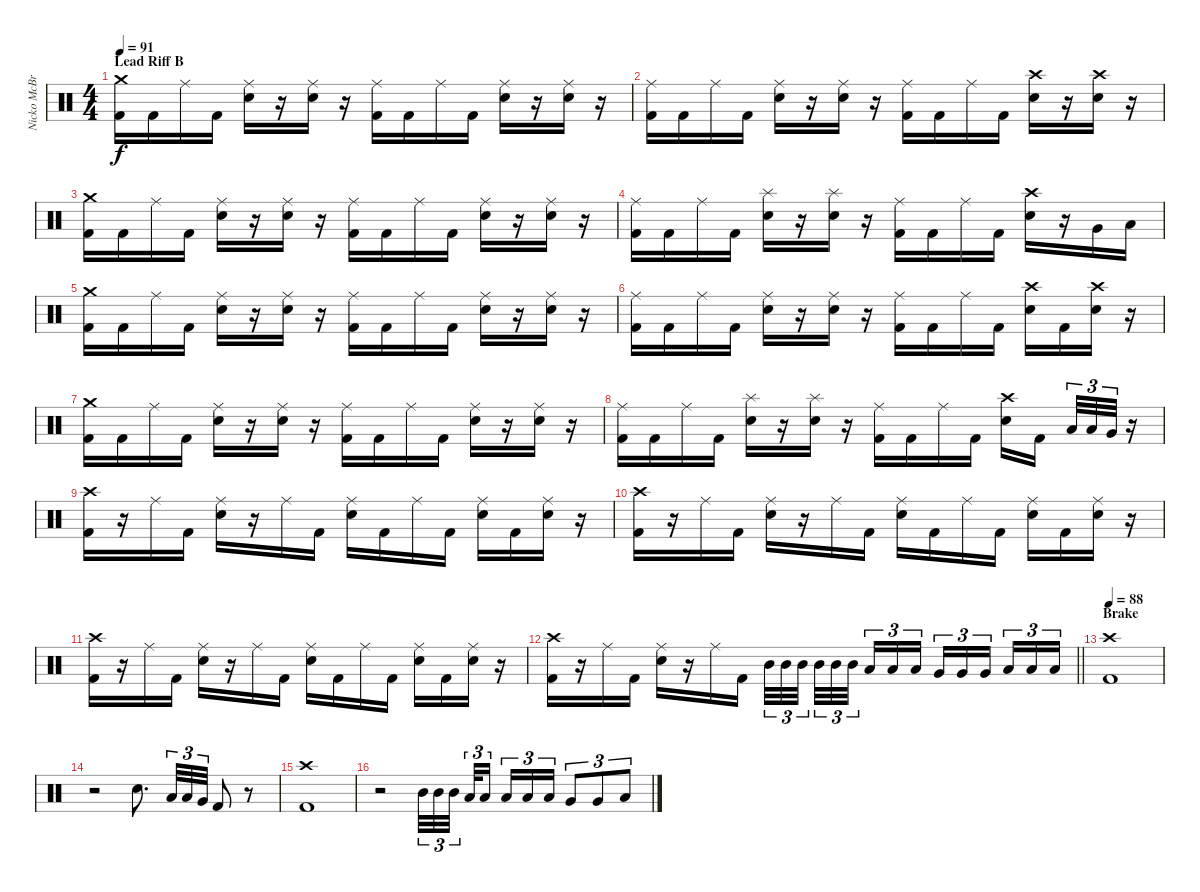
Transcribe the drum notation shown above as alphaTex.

\track ("Nicko McBrian" "Nicko McBr") {instrument percussion}
\staff {score}
\articulation defaults
\ts (4 4)
\section ("" "Lead Riff B")
\tempo 91
\clef neutral
\ks c
("Crash medium (hit)" "Kick (hit) 2").16{dy f} "Kick (hit) 2".16 "Ride (middle)".16 "Kick (hit) 2".16 ("Ride (middle)" "Snare (hit) 2").16 r.16 ("Ride (middle)" "Snare (hit) 2").16 r.16 ("Ride (middle)" "Kick (hit) 2").16 "Kick (hit) 2".16 "Ride (middle)".16 "Kick (hit) 2".16 ("Ride (middle)" "Snare (hit) 2").16 r.16 ("Ride (middle)" "Snare (hit) 2").16 r.16 |
("Ride (middle)" "Kick (hit) 2").16 "Kick (hit) 2".16 "Ride (middle)".16 "Kick (hit) 2".16 ("Ride (middle)" "Snare (hit) 2").16 r.16 ("Ride (middle)" "Snare (hit) 2").16 r.16 ("Ride (middle)" "Kick (hit) 2").16 "Kick (hit) 2".16 "Ride (middle)".16 "Kick (hit) 2".16 ("Crash high (hit)" "Snare (hit) 2").16 r.16 ("Crash high (hit)" "Snare (hit) 2").16 r.16 |
("Crash medium (hit)" "Kick (hit) 2").16 "Kick (hit) 2".16 "Ride (middle)".16 "Kick (hit) 2".16 ("Ride (middle)" "Snare (hit) 2").16 r.16 ("Ride (middle)" "Snare (hit) 2").16 r.16 ("Ride (middle)" "Kick (hit) 2").16 "Kick (hit) 2".16 "Ride (middle)".16 "Kick (hit) 2".16 ("Ride (middle)" "Snare (hit) 2").16 r.16 ("Ride (middle)" "Snare (hit) 2").16 r.16 |
("Ride (middle)" "Kick (hit) 2").16 "Kick (hit) 2".16 "Ride (middle)".16 "Kick (hit) 2".16 ("Splash (hit)" "Snare (hit) 2").16 r.16 ("Splash (hit)" "Snare (hit) 2").16 r.16 ("Ride (middle)" "Kick (hit) 2").16 "Kick (hit) 2".16 "Ride (middle)".16 "Kick (hit) 2".16 ("Crash high (hit)" "Snare (hit) 2").16 r.16 "Very Low Tom (hit)".16 "Low Floor Tom (hit)".16 |
("Crash medium (hit)" "Kick (hit) 2").16 "Kick (hit) 2".16 "Ride (middle)".16 "Kick (hit) 2".16 ("Ride (middle)" "Snare (hit) 2").16 r.16 ("Ride (middle)" "Snare (hit) 2").16 r.16 ("Ride (middle)" "Kick (hit) 2").16 "Kick (hit) 2".16 "Ride (middle)".16 "Kick (hit) 2".16 ("Ride (middle)" "Snare (hit) 2").16 r.16 ("Ride (middle)" "Snare (hit) 2").16 r.16 |
("Ride (middle)" "Kick (hit) 2").16 "Kick (hit) 2".16 "Ride (middle)".16 "Kick (hit) 2".16 ("Ride (middle)" "Snare (hit) 2").16 r.16 ("Ride (middle)" "Snare (hit) 2").16 r.16 ("Ride (middle)" "Kick (hit) 2").16 "Kick (hit) 2".16 "Ride (middle)".16 "Kick (hit) 2".16 ("Crash high (hit)" "Snare (hit) 2").16 "Kick (hit) 2".16 ("Crash high (hit)" "Snare (hit) 2").16 r.16 |
("Crash medium (hit)" "Kick (hit) 2").16 "Kick (hit) 2".16 "Ride (middle)".16 "Kick (hit) 2".16 ("Ride (middle)" "Snare (hit) 2").16 r.16 ("Ride (middle)" "Snare (hit) 2").16 r.16 ("Ride (middle)" "Kick (hit) 2").16 "Kick (hit) 2".16 "Ride (middle)".16 "Kick (hit) 2".16 ("Ride (middle)" "Snare (hit) 2").16 r.16 ("Ride (middle)" "Snare (hit) 2").16 r.16 |
("Ride (middle)" "Kick (hit) 2").16 "Kick (hit) 2".16 "Ride (middle)".16 "Kick (hit) 2".16 ("Splash (hit)" "Snare (hit) 2").16 r.16 ("Splash (hit)" "Snare (hit) 2").16 r.16 ("Ride (middle)" "Kick (hit) 2").16 "Kick (hit) 2".16 "Ride (middle)".16 "Kick (hit) 2".16 ("Crash high (hit)" "Snare (hit) 2").16 "Kick (hit) 2".16{beam splitsecondary} "Low Tom (hit)".32{tu (3 2)} "Low Tom (hit)".32{tu (3 2)} "Very Low Tom (hit)".32{tu (3 2)} r.16 |
("Crash high (hit)" "Kick (hit) 2").16 r.16 "Ride (middle)".16 "Kick (hit) 2".16 ("Ride (middle)" "Snare (hit) 2").16 r.16 "Ride (middle)".16 "Kick (hit) 2".16 ("Ride (middle)" "Snare (hit) 2").16 "Kick (hit) 2".16 "Ride (middle)".16 "Kick (hit) 2".16 ("Ride (middle)" "Snare (hit) 2").16 "Kick (hit) 2".16 ("Ride (middle)" "Snare (hit) 2").16 r.16 |
("Crash high (hit)" "Kick (hit) 2").16 r.16 "Ride (middle)".16 "Kick (hit) 2".16 ("Ride (middle)" "Snare (hit) 2").16 r.16 "Ride (middle)".16 "Kick (hit) 2".16 ("Ride (middle)" "Snare (hit) 2").16 "Kick (hit) 2".16 "Ride (middle)".16 "Kick (hit) 2".16 ("Ride (middle)" "Snare (hit) 2").16 "Kick (hit) 2".16 ("Ride (middle)" "Snare (hit) 2").16 r.16 |
("Crash high (hit)" "Kick (hit) 2").16 r.16 "Ride (middle)".16 "Kick (hit) 2".16 ("Ride (middle)" "Snare (hit) 2").16 r.16 "Ride (middle)".16 "Kick (hit) 2".16 ("Ride (middle)" "Snare (hit) 2").16 "Kick (hit) 2".16 "Ride (middle)".16 "Kick (hit) 2".16 ("Ride (middle)" "Snare (hit) 2").16 "Kick (hit) 2".16 ("Ride (middle)" "Snare (hit) 2").16 r.16 |
\barLineRight lightlight
("Crash high (hit)" "Kick (hit) 2").16 r.16 "Ride (middle)".16 "Kick (hit) 2".16 ("Ride (middle)" "Snare (hit) 2").16 r.16 "Ride (middle)".16 "Kick (hit) 2".16 "Mid Tom (hit)".32{tu (3 2)} "Mid Tom (hit)".32{tu (3 2)} "Mid Tom (hit)".32{tu (3 2) beam splitsecondary} "Mid Tom (hit)".32{tu (3 2)} "Mid Tom (hit)".32{tu (3 2)} "Mid Tom (hit)".32{tu (3 2) beam splitsecondary} "Low Tom (hit)".16{tu (3 2)} "Low Tom (hit)".16{tu (3 2)} "Low Tom (hit)".16{tu (3 2)} "Very Low Tom (hit)".16{tu (3 2)} "Very Low Tom (hit)".16{tu (3 2)} "Very Low Tom (hit)".16{tu (3 2) beam splitsecondary} "Low Floor Tom (hit)".16{tu (3 2)} "Low Floor Tom (hit)".16{tu (3 2)} "Low Floor Tom (hit)".16{tu (3 2)} |
\section ("" "Brake")
\tempo 88
("Crash high (hit)" "Kick (hit) 2").1 |
r.2 "Snare (hit) 2".8{d} "Low Tom (hit)".32{tu (3 2)} "Low Tom (hit)".32{tu (3 2)} "Very Low Tom (hit)".32{tu (3 2)} "Kick (hit) 2".8 r.8 |
("Crash high (hit)" "Kick (hit) 2").1 |
r.2 "Mid Tom (hit)".32{tu (3 2)} "Mid Tom (hit)".32{tu (3 2)} "Mid Tom (hit)".32{tu (3 2) beam splitsecondary} "Low Tom (hit)".32{tu (3 2)} "Low Tom (hit)".16{tu (3 2) beam splitsecondary} "Low Tom (hit)".16{tu (3 2)} "Low Tom (hit)".16{tu (3 2)} "Low Tom (hit)".16{tu (3 2)} "Very Low Tom (hit)".8{tu (3 2)} "Very Low Tom (hit)".8{tu (3 2)} "Low Floor Tom (hit)".8{tu (3 2)}
